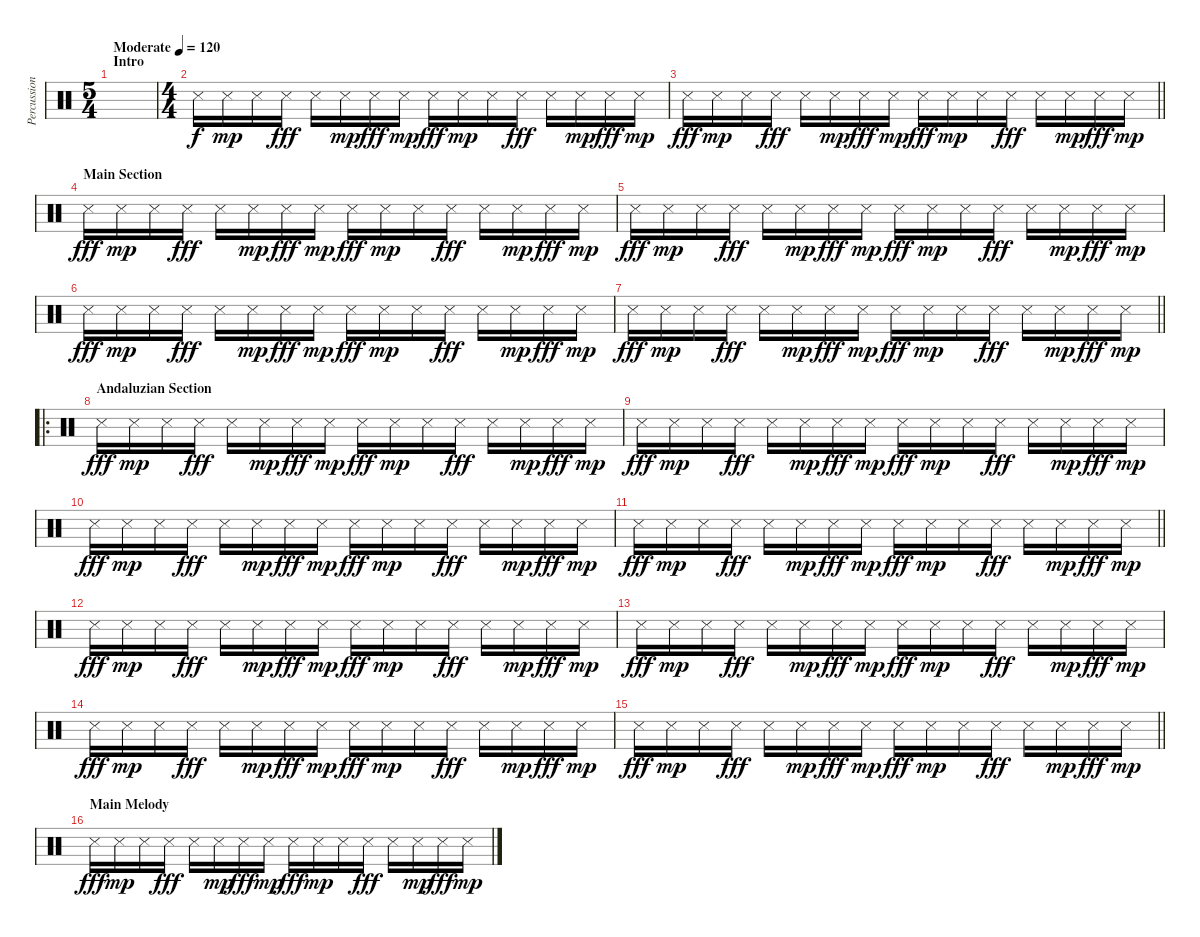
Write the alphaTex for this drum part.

\track ("Percussions" "Percussion") {instrument percussion}
\staff {score}
\articulation defaults
\ts (5 4)
\section ("" "Intro")
\tempo (120 "Moderate")
\clef neutral
\ks c
|
\ts (4 4)
"Snare (side stick) 3".16 "Snare (side stick) 3".16{dy mp} "Snare (side stick) 3".16 "Snare (side stick) 3".16{dy fff} "Snare (side stick) 3".16 "Snare (side stick) 3".16{dy mp} "Snare (side stick) 3".16{dy fff} "Snare (side stick) 3".16{dy mp} "Snare (side stick) 3".16{dy fff} "Snare (side stick) 3".16{dy mp} "Snare (side stick) 3".16 "Snare (side stick) 3".16{dy fff} "Snare (side stick) 3".16 "Snare (side stick) 3".16{dy mp} "Snare (side stick) 3".16{dy fff} "Snare (side stick) 3".16{dy mp} |
\barLineRight lightlight "Snare (side stick) 3".16{dy fff} "Snare (side stick) 3".16{dy mp} "Snare (side stick) 3".16 "Snare (side stick) 3".16{dy fff} "Snare (side stick) 3".16 "Snare (side stick) 3".16{dy mp} "Snare (side stick) 3".16{dy fff} "Snare (side stick) 3".16{dy mp} "Snare (side stick) 3".16{dy fff} "Snare (side stick) 3".16{dy mp} "Snare (side stick) 3".16 "Snare (side stick) 3".16{dy fff} "Snare (side stick) 3".16 "Snare (side stick) 3".16{dy mp} "Snare (side stick) 3".16{dy fff} "Snare (side stick) 3".16{dy mp}
|
\section ("" "Main Section")
"Snare (side stick) 3".16{dy fff} "Snare (side stick) 3".16{dy mp} "Snare (side stick) 3".16 "Snare (side stick) 3".16{dy fff} "Snare (side stick) 3".16 "Snare (side stick) 3".16{dy mp} "Snare (side stick) 3".16{dy fff} "Snare (side stick) 3".16{dy mp} "Snare (side stick) 3".16{dy fff} "Snare (side stick) 3".16{dy mp} "Snare (side stick) 3".16 "Snare (side stick) 3".16{dy fff} "Snare (side stick) 3".16 "Snare (side stick) 3".16{dy mp} "Snare (side stick) 3".16{dy fff} "Snare (side stick) 3".16{dy mp} |
"Snare (side stick) 3".16{dy fff} "Snare (side stick) 3".16{dy mp} "Snare (side stick) 3".16 "Snare (side stick) 3".16{dy fff} "Snare (side stick) 3".16 "Snare (side stick) 3".16{dy mp} "Snare (side stick) 3".16{dy fff} "Snare (side stick) 3".16{dy mp} "Snare (side stick) 3".16{dy fff} "Snare (side stick) 3".16{dy mp} "Snare (side stick) 3".16 "Snare (side stick) 3".16{dy fff} "Snare (side stick) 3".16 "Snare (side stick) 3".16{dy mp} "Snare (side stick) 3".16{dy fff} "Snare (side stick) 3".16{dy mp} |
"Snare (side stick) 3".16{dy fff} "Snare (side stick) 3".16{dy mp} "Snare (side stick) 3".16 "Snare (side stick) 3".16{dy fff} "Snare (side stick) 3".16 "Snare (side stick) 3".16{dy mp} "Snare (side stick) 3".16{dy fff} "Snare (side stick) 3".16{dy mp} "Snare (side stick) 3".16{dy fff} "Snare (side stick) 3".16{dy mp} "Snare (side stick) 3".16 "Snare (side stick) 3".16{dy fff} "Snare (side stick) 3".16 "Snare (side stick) 3".16{dy mp} "Snare (side stick) 3".16{dy fff} "Snare (side stick) 3".16{dy mp} |
\barLineRight lightlight "Snare (side stick) 3".16{dy fff} "Snare (side stick) 3".16{dy mp} "Snare (side stick) 3".16 "Snare (side stick) 3".16{dy fff} "Snare (side stick) 3".16 "Snare (side stick) 3".16{dy mp} "Snare (side stick) 3".16{dy fff} "Snare (side stick) 3".16{dy mp} "Snare (side stick) 3".16{dy fff} "Snare (side stick) 3".16{dy mp} "Snare (side stick) 3".16 "Snare (side stick) 3".16{dy fff} "Snare (side stick) 3".16 "Snare (side stick) 3".16{dy mp} "Snare (side stick) 3".16{dy fff} "Snare (side stick) 3".16{dy mp}
|
\ro
\section ("" "Andaluzian Section")
"Snare (side stick) 3".16{dy fff} "Snare (side stick) 3".16{dy mp} "Snare (side stick) 3".16 "Snare (side stick) 3".16{dy fff} "Snare (side stick) 3".16 "Snare (side stick) 3".16{dy mp} "Snare (side stick) 3".16{dy fff} "Snare (side stick) 3".16{dy mp} "Snare (side stick) 3".16{dy fff} "Snare (side stick) 3".16{dy mp} "Snare (side stick) 3".16 "Snare (side stick) 3".16{dy fff} "Snare (side stick) 3".16 "Snare (side stick) 3".16{dy mp} "Snare (side stick) 3".16{dy fff} "Snare (side stick) 3".16{dy mp} |
"Snare (side stick) 3".16{dy fff} "Snare (side stick) 3".16{dy mp} "Snare (side stick) 3".16 "Snare (side stick) 3".16{dy fff} "Snare (side stick) 3".16 "Snare (side stick) 3".16{dy mp} "Snare (side stick) 3".16{dy fff} "Snare (side stick) 3".16{dy mp} "Snare (side stick) 3".16{dy fff} "Snare (side stick) 3".16{dy mp} "Snare (side stick) 3".16 "Snare (side stick) 3".16{dy fff} "Snare (side stick) 3".16 "Snare (side stick) 3".16{dy mp} "Snare (side stick) 3".16{dy fff} "Snare (side stick) 3".16{dy mp} |
"Snare (side stick) 3".16{dy fff} "Snare (side stick) 3".16{dy mp} "Snare (side stick) 3".16 "Snare (side stick) 3".16{dy fff} "Snare (side stick) 3".16 "Snare (side stick) 3".16{dy mp} "Snare (side stick) 3".16{dy fff} "Snare (side stick) 3".16{dy mp} "Snare (side stick) 3".16{dy fff} "Snare (side stick) 3".16{dy mp} "Snare (side stick) 3".16 "Snare (side stick) 3".16{dy fff} "Snare (side stick) 3".16 "Snare (side stick) 3".16{dy mp} "Snare (side stick) 3".16{dy fff} "Snare (side stick) 3".16{dy mp} |
\barLineRight lightlight "Snare (side stick) 3".16{dy fff} "Snare (side stick) 3".16{dy mp} "Snare (side stick) 3".16 "Snare (side stick) 3".16{dy fff} "Snare (side stick) 3".16 "Snare (side stick) 3".16{dy mp} "Snare (side stick) 3".16{dy fff} "Snare (side stick) 3".16{dy mp} "Snare (side stick) 3".16{dy fff} "Snare (side stick) 3".16{dy mp} "Snare (side stick) 3".16 "Snare (side stick) 3".16{dy fff} "Snare (side stick) 3".16 "Snare (side stick) 3".16{dy mp} "Snare (side stick) 3".16{dy fff} "Snare (side stick) 3".16{dy mp}
|
"Snare (side stick) 3".16{dy fff} "Snare (side stick) 3".16{dy mp} "Snare (side stick) 3".16 "Snare (side stick) 3".16{dy fff} "Snare (side stick) 3".16 "Snare (side stick) 3".16{dy mp} "Snare (side stick) 3".16{dy fff} "Snare (side stick) 3".16{dy mp} "Snare (side stick) 3".16{dy fff} "Snare (side stick) 3".16{dy mp} "Snare (side stick) 3".16 "Snare (side stick) 3".16{dy fff} "Snare (side stick) 3".16 "Snare (side stick) 3".16{dy mp} "Snare (side stick) 3".16{dy fff} "Snare (side stick) 3".16{dy mp} |
"Snare (side stick) 3".16{dy fff} "Snare (side stick) 3".16{dy mp} "Snare (side stick) 3".16 "Snare (side stick) 3".16{dy fff} "Snare (side stick) 3".16 "Snare (side stick) 3".16{dy mp} "Snare (side stick) 3".16{dy fff} "Snare (side stick) 3".16{dy mp} "Snare (side stick) 3".16{dy fff} "Snare (side stick) 3".16{dy mp} "Snare (side stick) 3".16 "Snare (side stick) 3".16{dy fff} "Snare (side stick) 3".16 "Snare (side stick) 3".16{dy mp} "Snare (side stick) 3".16{dy fff} "Snare (side stick) 3".16{dy mp} |
"Snare (side stick) 3".16{dy fff} "Snare (side stick) 3".16{dy mp} "Snare (side stick) 3".16 "Snare (side stick) 3".16{dy fff} "Snare (side stick) 3".16 "Snare (side stick) 3".16{dy mp} "Snare (side stick) 3".16{dy fff} "Snare (side stick) 3".16{dy mp} "Snare (side stick) 3".16{dy fff} "Snare (side stick) 3".16{dy mp} "Snare (side stick) 3".16 "Snare (side stick) 3".16{dy fff} "Snare (side stick) 3".16 "Snare (side stick) 3".16{dy mp} "Snare (side stick) 3".16{dy fff} "Snare (side stick) 3".16{dy mp} |
\barLineRight lightlight "Snare (side stick) 3".16{dy fff} "Snare (side stick) 3".16{dy mp} "Snare (side stick) 3".16 "Snare (side stick) 3".16{dy fff} "Snare (side stick) 3".16 "Snare (side stick) 3".16{dy mp} "Snare (side stick) 3".16{dy fff} "Snare (side stick) 3".16{dy mp} "Snare (side stick) 3".16{dy fff} "Snare (side stick) 3".16{dy mp} "Snare (side stick) 3".16 "Snare (side stick) 3".16{dy fff} "Snare (side stick) 3".16 "Snare (side stick) 3".16{dy mp} "Snare (side stick) 3".16{dy fff} "Snare (side stick) 3".16{dy mp}
|
\section ("" "Main Melody")
"Snare (side stick) 3".16{dy fff} "Snare (side stick) 3".16{dy mp} "Snare (side stick) 3".16 "Snare (side stick) 3".16{dy fff} "Snare (side stick) 3".16 "Snare (side stick) 3".16{dy mp} "Snare (side stick) 3".16{dy fff} "Snare (side stick) 3".16{dy mp} "Snare (side stick) 3".16{dy fff} "Snare (side stick) 3".16{dy mp} "Snare (side stick) 3".16 "Snare (side stick) 3".16{dy fff} "Snare (side stick) 3".16 "Snare (side stick) 3".16{dy mp} "Snare (side stick) 3".16{dy fff} "Snare (side stick) 3".16{dy mp}
